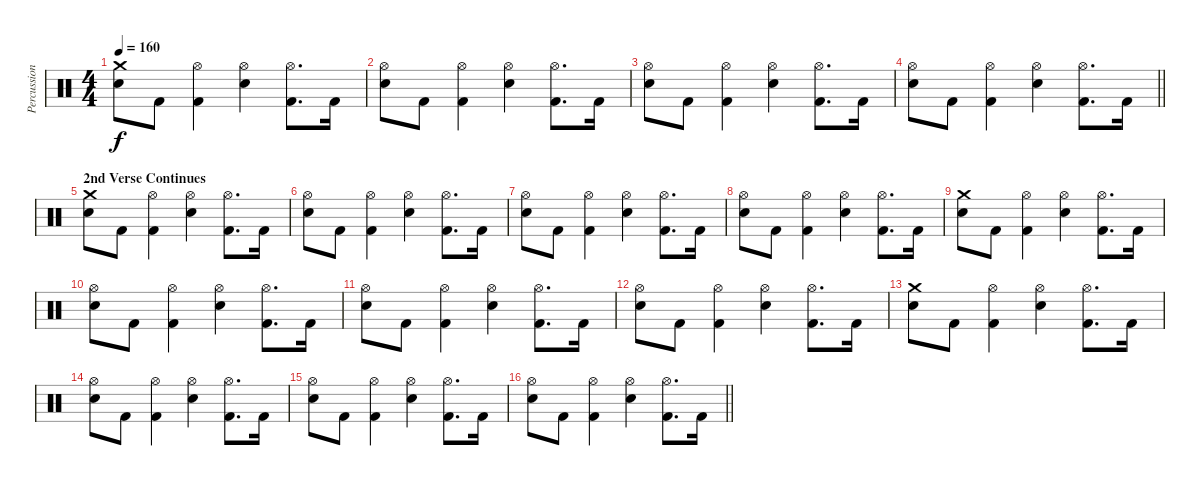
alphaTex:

\track ("Percussion" "Percussion") {instrument percussion}
\staff {score}
\articulation defaults
\ts (4 4)
\tempo 160
\clef neutral
\ks c
("Electric Snare (hit)" "Crash medium (hit)").8{dy f} "Kick (hit) 2".8 ("Kick (hit) 2" "Hi-Hat (open)").4 ("Electric Snare (hit)" "Hi-Hat (open)").4 ("Kick (hit) 2" "Hi-Hat (open)").8{d} "Kick (hit) 2".16 |
("Electric Snare (hit)" "Hi-Hat (open)").8 "Kick (hit) 2".8 ("Kick (hit) 2" "Hi-Hat (open)").4 ("Electric Snare (hit)" "Hi-Hat (open)").4 ("Kick (hit) 2" "Hi-Hat (open)").8{d} "Kick (hit) 2".16 |
("Electric Snare (hit)" "Hi-Hat (open)").8 "Kick (hit) 2".8 ("Kick (hit) 2" "Hi-Hat (open)").4 ("Electric Snare (hit)" "Hi-Hat (open)").4 ("Kick (hit) 2" "Hi-Hat (open)").8{d} "Kick (hit) 2".16 |
\barLineRight lightlight
("Electric Snare (hit)" "Hi-Hat (open)").8 "Kick (hit) 2".8 ("Kick (hit) 2" "Hi-Hat (open)").4 ("Electric Snare (hit)" "Hi-Hat (open)").4 ("Kick (hit) 2" "Hi-Hat (open)").8{d} "Kick (hit) 2".16 |
\section ("" "2nd Verse Continues")
("Electric Snare (hit)" "Crash medium (hit)").8 "Kick (hit) 2".8 ("Kick (hit) 2" "Hi-Hat (open)").4 ("Electric Snare (hit)" "Hi-Hat (open)").4 ("Kick (hit) 2" "Hi-Hat (open)").8{d} "Kick (hit) 2".16 |
("Electric Snare (hit)" "Hi-Hat (open)").8 "Kick (hit) 2".8 ("Kick (hit) 2" "Hi-Hat (open)").4 ("Electric Snare (hit)" "Hi-Hat (open)").4 ("Kick (hit) 2" "Hi-Hat (open)").8{d} "Kick (hit) 2".16 |
("Electric Snare (hit)" "Hi-Hat (open)").8 "Kick (hit) 2".8 ("Kick (hit) 2" "Hi-Hat (open)").4 ("Electric Snare (hit)" "Hi-Hat (open)").4 ("Kick (hit) 2" "Hi-Hat (open)").8{d} "Kick (hit) 2".16 |
("Electric Snare (hit)" "Hi-Hat (open)").8 "Kick (hit) 2".8 ("Kick (hit) 2" "Hi-Hat (open)").4 ("Electric Snare (hit)" "Hi-Hat (open)").4 ("Kick (hit) 2" "Hi-Hat (open)").8{d} "Kick (hit) 2".16 |
("Electric Snare (hit)" "Crash medium (hit)").8 "Kick (hit) 2".8 ("Kick (hit) 2" "Hi-Hat (open)").4 ("Electric Snare (hit)" "Hi-Hat (open)").4 ("Kick (hit) 2" "Hi-Hat (open)").8{d} "Kick (hit) 2".16 |
("Electric Snare (hit)" "Hi-Hat (open)").8 "Kick (hit) 2".8 ("Kick (hit) 2" "Hi-Hat (open)").4 ("Electric Snare (hit)" "Hi-Hat (open)").4 ("Kick (hit) 2" "Hi-Hat (open)").8{d} "Kick (hit) 2".16 |
("Electric Snare (hit)" "Hi-Hat (open)").8 "Kick (hit) 2".8 ("Kick (hit) 2" "Hi-Hat (open)").4 ("Electric Snare (hit)" "Hi-Hat (open)").4 ("Kick (hit) 2" "Hi-Hat (open)").8{d} "Kick (hit) 2".16 |
("Electric Snare (hit)" "Hi-Hat (open)").8 "Kick (hit) 2".8 ("Kick (hit) 2" "Hi-Hat (open)").4 ("Electric Snare (hit)" "Hi-Hat (open)").4 ("Kick (hit) 2" "Hi-Hat (open)").8{d} "Kick (hit) 2".16 |
("Electric Snare (hit)" "Crash medium (hit)").8 "Kick (hit) 2".8 ("Kick (hit) 2" "Hi-Hat (open)").4 ("Electric Snare (hit)" "Hi-Hat (open)").4 ("Kick (hit) 2" "Hi-Hat (open)").8{d} "Kick (hit) 2".16 |
("Electric Snare (hit)" "Hi-Hat (open)").8 "Kick (hit) 2".8 ("Kick (hit) 2" "Hi-Hat (open)").4 ("Electric Snare (hit)" "Hi-Hat (open)").4 ("Kick (hit) 2" "Hi-Hat (open)").8{d} "Kick (hit) 2".16 |
("Electric Snare (hit)" "Hi-Hat (open)").8 "Kick (hit) 2".8 ("Kick (hit) 2" "Hi-Hat (open)").4 ("Electric Snare (hit)" "Hi-Hat (open)").4 ("Kick (hit) 2" "Hi-Hat (open)").8{d} "Kick (hit) 2".16 |
\barLineRight lightlight
("Electric Snare (hit)" "Hi-Hat (open)").8 "Kick (hit) 2".8 ("Kick (hit) 2" "Hi-Hat (open)").4 ("Electric Snare (hit)" "Hi-Hat (open)").4 ("Kick (hit) 2" "Hi-Hat (open)").8{d} "Kick (hit) 2".16
